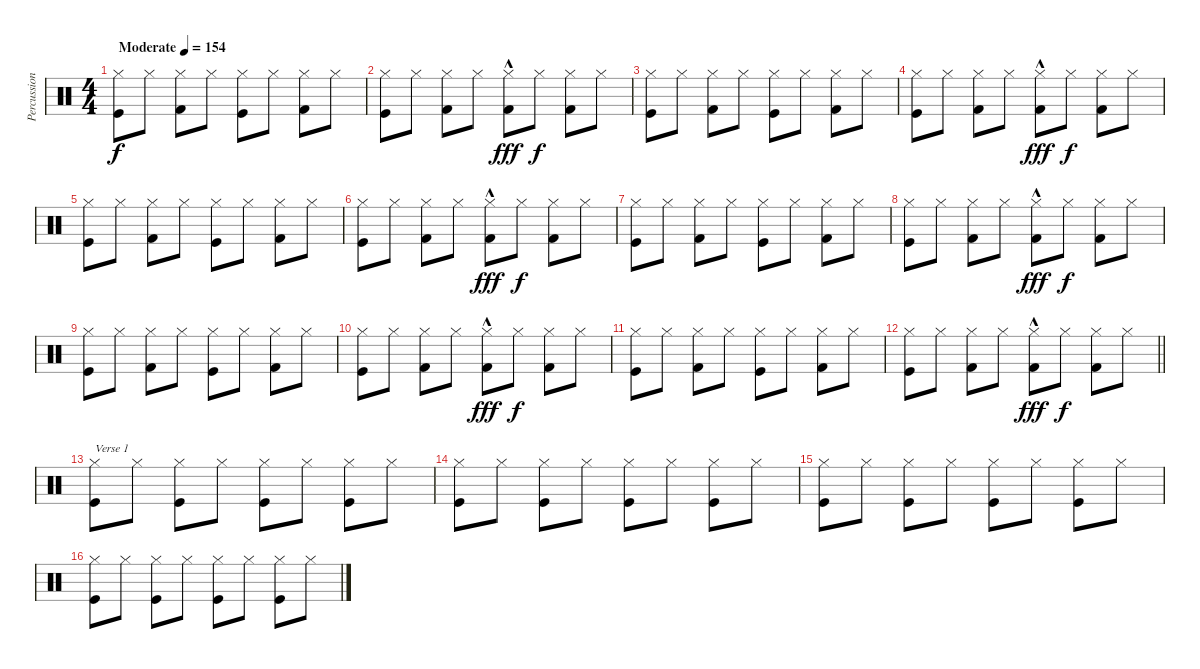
\track ("Percussion" "Percussion") {instrument percussion}
\staff {score}
\articulation defaults
\ts (4 4)
\tempo (154 "Moderate")
\clef neutral
\ks c
("Hi-Hat (closed)" "Kick (hit)").8{dy f} "Hi-Hat (closed)".8 ("Hi-Hat (closed)" "Kick (hit) 2").8 "Hi-Hat (closed)".8 ("Hi-Hat (closed)" "Kick (hit)").8 "Hi-Hat (closed)".8 ("Hi-Hat (closed)" "Kick (hit) 2").8 "Hi-Hat (closed)".8 |
("Hi-Hat (closed)" "Kick (hit)").8 "Hi-Hat (closed)".8 ("Hi-Hat (closed)" "Kick (hit) 2").8 "Hi-Hat (closed)".8 ("Hi-Hat (closed)" "Kick (hit) 2"{hac}).8{dy fff} "Hi-Hat (closed)".8{dy f} ("Hi-Hat (closed)" "Kick (hit) 2").8 "Hi-Hat (closed)".8 |
("Hi-Hat (closed)" "Kick (hit)").8 "Hi-Hat (closed)".8 ("Hi-Hat (closed)" "Kick (hit) 2").8 "Hi-Hat (closed)".8 ("Hi-Hat (closed)" "Kick (hit)").8 "Hi-Hat (closed)".8 ("Hi-Hat (closed)" "Kick (hit) 2").8 "Hi-Hat (closed)".8 |
("Hi-Hat (closed)" "Kick (hit)").8 "Hi-Hat (closed)".8 ("Hi-Hat (closed)" "Kick (hit) 2").8 "Hi-Hat (closed)".8 ("Hi-Hat (closed)" "Kick (hit) 2"{hac}).8{dy fff} "Hi-Hat (closed)".8{dy f} ("Hi-Hat (closed)" "Kick (hit) 2").8 "Hi-Hat (closed)".8 |
("Hi-Hat (closed)" "Kick (hit)").8 "Hi-Hat (closed)".8 ("Hi-Hat (closed)" "Kick (hit) 2").8 "Hi-Hat (closed)".8 ("Hi-Hat (closed)" "Kick (hit)").8 "Hi-Hat (closed)".8 ("Hi-Hat (closed)" "Kick (hit) 2").8 "Hi-Hat (closed)".8 |
("Hi-Hat (closed)" "Kick (hit)").8 "Hi-Hat (closed)".8 ("Hi-Hat (closed)" "Kick (hit) 2").8 "Hi-Hat (closed)".8 ("Hi-Hat (closed)" "Kick (hit) 2"{hac}).8{dy fff} "Hi-Hat (closed)".8{dy f} ("Hi-Hat (closed)" "Kick (hit) 2").8 "Hi-Hat (closed)".8 |
("Hi-Hat (closed)" "Kick (hit)").8 "Hi-Hat (closed)".8 ("Hi-Hat (closed)" "Kick (hit) 2").8 "Hi-Hat (closed)".8 ("Hi-Hat (closed)" "Kick (hit)").8 "Hi-Hat (closed)".8 ("Hi-Hat (closed)" "Kick (hit) 2").8 "Hi-Hat (closed)".8 |
("Hi-Hat (closed)" "Kick (hit)").8 "Hi-Hat (closed)".8 ("Hi-Hat (closed)" "Kick (hit) 2").8 "Hi-Hat (closed)".8 ("Hi-Hat (closed)" "Kick (hit) 2"{hac}).8{dy fff} "Hi-Hat (closed)".8{dy f} ("Hi-Hat (closed)" "Kick (hit) 2").8 "Hi-Hat (closed)".8 |
("Hi-Hat (closed)" "Kick (hit)").8 "Hi-Hat (closed)".8 ("Hi-Hat (closed)" "Kick (hit) 2").8 "Hi-Hat (closed)".8 ("Hi-Hat (closed)" "Kick (hit)").8 "Hi-Hat (closed)".8 ("Hi-Hat (closed)" "Kick (hit) 2").8 "Hi-Hat (closed)".8 |
("Hi-Hat (closed)" "Kick (hit)").8 "Hi-Hat (closed)".8 ("Hi-Hat (closed)" "Kick (hit) 2").8 "Hi-Hat (closed)".8 ("Hi-Hat (closed)" "Kick (hit) 2"{hac}).8{dy fff} "Hi-Hat (closed)".8{dy f} ("Hi-Hat (closed)" "Kick (hit) 2").8 "Hi-Hat (closed)".8 |
("Hi-Hat (closed)" "Kick (hit)").8 "Hi-Hat (closed)".8 ("Hi-Hat (closed)" "Kick (hit) 2").8 "Hi-Hat (closed)".8 ("Hi-Hat (closed)" "Kick (hit)").8 "Hi-Hat (closed)".8 ("Hi-Hat (closed)" "Kick (hit) 2").8 "Hi-Hat (closed)".8 |
\barLineRight lightlight
("Hi-Hat (closed)" "Kick (hit)").8 "Hi-Hat (closed)".8 ("Hi-Hat (closed)" "Kick (hit) 2").8 "Hi-Hat (closed)".8 ("Hi-Hat (closed)" "Kick (hit) 2"{hac}).8{dy fff} "Hi-Hat (closed)".8{dy f} ("Hi-Hat (closed)" "Kick (hit) 2").8 "Hi-Hat (closed)".8 |
("Hi-Hat (closed)" "Kick (hit)").8{txt "Verse 1"} "Hi-Hat (closed)".8 ("Hi-Hat (closed)" "Kick (hit)").8 "Hi-Hat (closed)".8 ("Hi-Hat (closed)" "Kick (hit)").8 "Hi-Hat (closed)".8 ("Hi-Hat (closed)" "Kick (hit)").8 "Hi-Hat (closed)".8 |
("Hi-Hat (closed)" "Kick (hit)").8 "Hi-Hat (closed)".8 ("Hi-Hat (closed)" "Kick (hit)").8 "Hi-Hat (closed)".8 ("Hi-Hat (closed)" "Kick (hit)").8 "Hi-Hat (closed)".8 ("Hi-Hat (closed)" "Kick (hit)").8 "Hi-Hat (closed)".8 |
("Hi-Hat (closed)" "Kick (hit)").8 "Hi-Hat (closed)".8 ("Hi-Hat (closed)" "Kick (hit)").8 "Hi-Hat (closed)".8 ("Hi-Hat (closed)" "Kick (hit)").8 "Hi-Hat (closed)".8 ("Hi-Hat (closed)" "Kick (hit)").8 "Hi-Hat (closed)".8 |
("Hi-Hat (closed)" "Kick (hit)").8 "Hi-Hat (closed)".8 ("Hi-Hat (closed)" "Kick (hit)").8 "Hi-Hat (closed)".8 ("Hi-Hat (closed)" "Kick (hit)").8 "Hi-Hat (closed)".8 ("Hi-Hat (closed)" "Kick (hit)").8 "Hi-Hat (closed)".8
